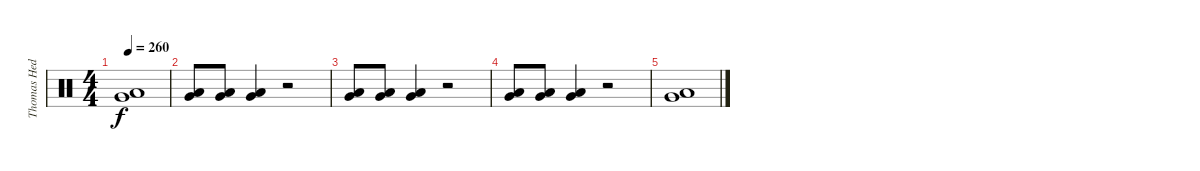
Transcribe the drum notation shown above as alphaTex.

\track ("Thomas Hedlund" "Thomas Hed") {instrument percussion}
\staff {score}
\articulation defaults
\ts (4 4)
\tempo 260
\clef neutral
\ks c
("Very Low Tom (hit)" "Low Floor Tom (hit)").1{dy f} |
("Very Low Tom (hit)" "Low Floor Tom (hit)").8 ("Very Low Tom (hit)" "Low Floor Tom (hit)").8 ("Very Low Tom (hit)" "Low Floor Tom (hit)").4 r.2 |
("Very Low Tom (hit)" "Low Floor Tom (hit)").8 ("Very Low Tom (hit)" "Low Floor Tom (hit)").8 ("Very Low Tom (hit)" "Low Floor Tom (hit)").4 r.2 |
("Very Low Tom (hit)" "Low Floor Tom (hit)").8 ("Very Low Tom (hit)" "Low Floor Tom (hit)").8 ("Very Low Tom (hit)" "Low Floor Tom (hit)").4 r.2 |
("Low Floor Tom (hit)" "Very Low Tom (hit)").1
